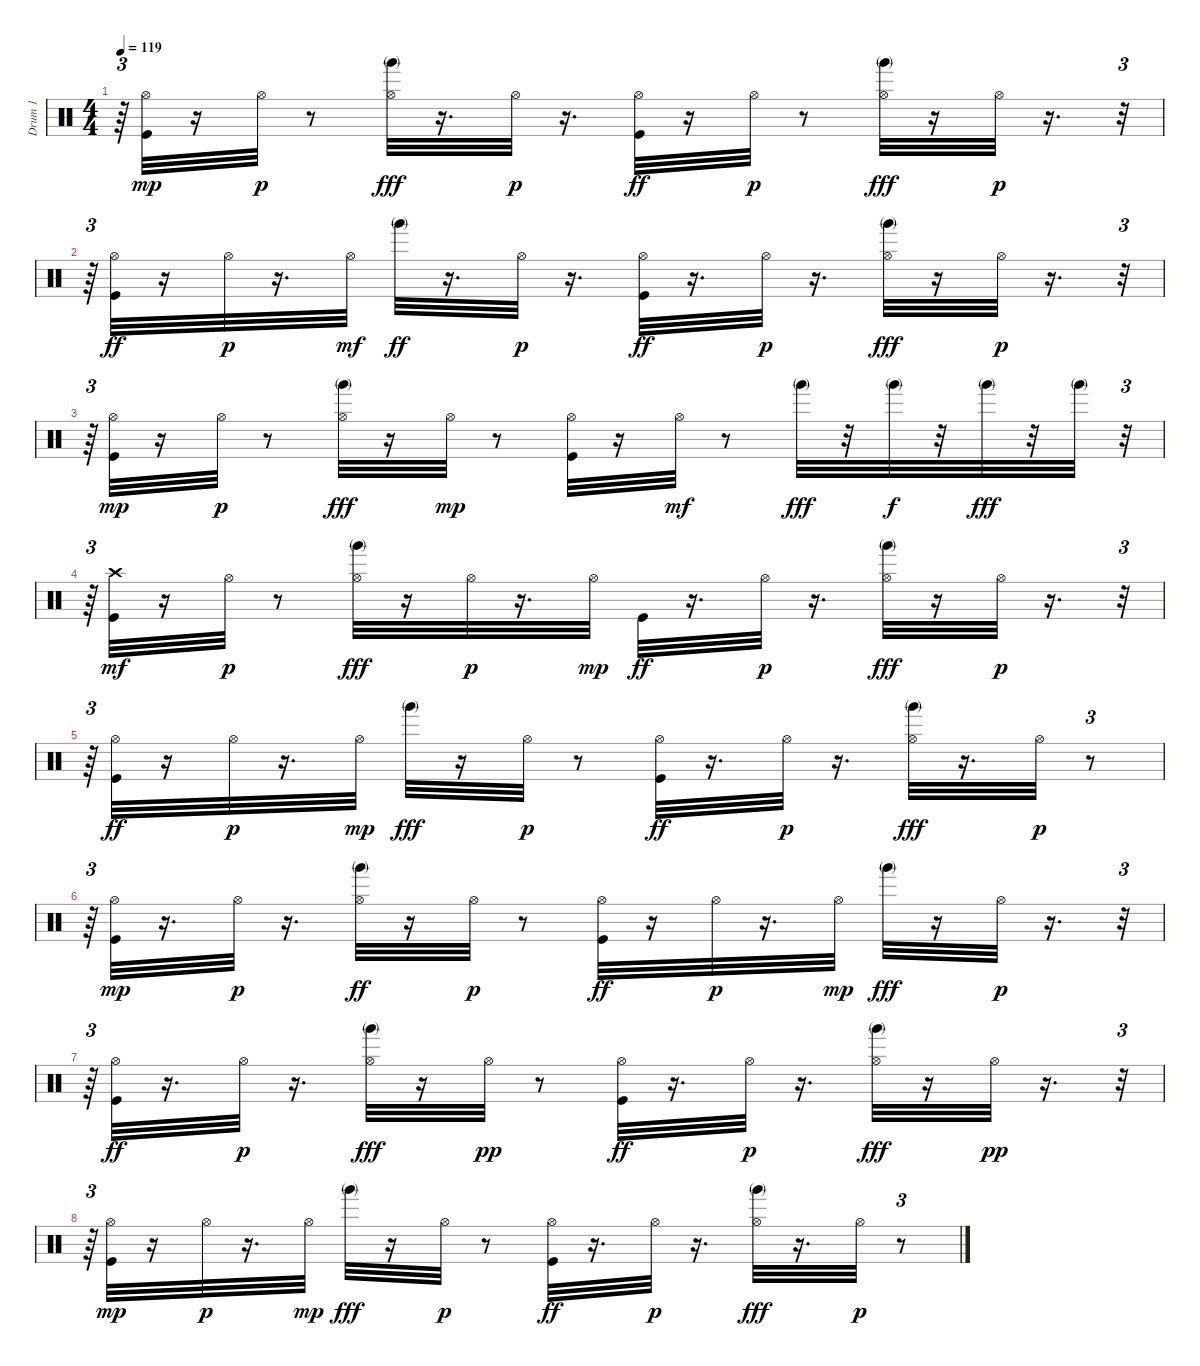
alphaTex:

\track ("Drum 1                          " "Drum 1    ") {instrument percussion}
\staff {score}
\articulation defaults
\ts (4 4)
\tempo 119
\clef neutral
\ks c
r.64{tu (3 2) dy p} ("Kick (hit)" "Hi-Hat (open)").32{dy mp} r.16 "Hi-Hat (open)".32{dy p} r.8 ("Hi-Hat (open)" "Hand (mute) 2").32{dy fff} r.16{d} "Hi-Hat (open)".32{dy p} r.16{d} ("Hi-Hat (open)" "Kick (hit)").32{dy ff} r.16 "Hi-Hat (open)".32{dy p} r.8 ("Hi-Hat (open)" "Hand (mute) 2").32{dy fff} r.16 "Hi-Hat (open)".32{dy p} r.16{d} r.32{tu (3 2)} |
r.64{tu (3 2)} ("Hi-Hat (open)" "Kick (hit)").32{dy ff} r.16 "Hi-Hat (open)".32{dy p} r.16{d} "Hi-Hat (open)".32{dy mf} "Hand (mute) 2".32{dy ff} r.16{d} "Hi-Hat (open)".32{dy p} r.16{d} ("Hi-Hat (open)" "Kick (hit)").32{dy ff} r.16{d} "Hi-Hat (open)".32{dy p} r.16{d} ("Hi-Hat (open)" "Hand (mute) 2").32{dy fff} r.16 "Hi-Hat (open)".32{dy p} r.16{d} r.32{tu (3 2)} |
r.64{tu (3 2)} ("Kick (hit)" "Hi-Hat (open)").32{dy mp} r.16 "Hi-Hat (open)".32{dy p} r.8 ("Hi-Hat (open)" "Hand (mute) 2").32{dy fff} r.16 "Hi-Hat (open)".32{dy mp} r.8 ("Kick (hit)" "Hi-Hat (open)").32 r.16 "Hi-Hat (open)".32{dy mf} r.8 "Hand (mute) 2".32{dy fff} r.32 "Hand (mute) 2".32{dy f} r.32 "Hand (mute) 2".32{dy fff} r.32 "Hand (mute) 2".32 r.32{tu (3 2)} |
r.64{tu (3 2)} ("Kick (hit)" "Crash high (hit)").32{dy mf} r.16 "Hi-Hat (open)".32{dy p} r.8 ("Hi-Hat (open)" "Hand (mute) 2").32{dy fff} r.16 "Hi-Hat (open)".32{dy p} r.16{d} "Hi-Hat (open)".32{dy mp} "Kick (hit)".32{dy ff} r.16{d} "Hi-Hat (open)".32{dy p} r.16{d} ("Hi-Hat (open)" "Hand (mute) 2").32{dy fff} r.16 "Hi-Hat (open)".32{dy p} r.16{d} r.32{tu (3 2)} |
r.64{tu (3 2)} ("Hi-Hat (open)" "Kick (hit)").32{dy ff} r.16 "Hi-Hat (open)".32{dy p} r.16{d} "Hi-Hat (open)".32{dy mp} "Hand (mute) 2".32{dy fff} r.16 "Hi-Hat (open)".32{dy p} r.8 ("Hi-Hat (open)" "Kick (hit)").32{dy ff} r.16{d} "Hi-Hat (open)".32{dy p} r.16{d} ("Hi-Hat (open)" "Hand (mute) 2").32{dy fff} r.16{d} "Hi-Hat (open)".32{dy p} r.8{tu (3 2)} |
r.64{tu (3 2)} ("Kick (hit)" "Hi-Hat (open)").32{dy mp} r.16{d} "Hi-Hat (open)".32{dy p} r.16{d} ("Hi-Hat (open)" "Hand (mute) 2").32{dy ff} r.16 "Hi-Hat (open)".32{dy p} r.8 ("Hi-Hat (open)" "Kick (hit)").32{dy ff} r.16 "Hi-Hat (open)".32{dy p} r.16{d} "Hi-Hat (open)".32{dy mp} "Hand (mute) 2".32{dy fff} r.16 "Hi-Hat (open)".32{dy p} r.16{d} r.32{tu (3 2)} |
r.64{tu (3 2)} ("Hi-Hat (open)" "Kick (hit)").32{dy ff} r.16{d} "Hi-Hat (open)".32{dy p} r.16{d} ("Hi-Hat (open)" "Hand (mute) 2").32{dy fff} r.16 "Hi-Hat (open)".32{dy pp} r.8 ("Hi-Hat (open)" "Kick (hit)").32{dy ff} r.16{d} "Hi-Hat (open)".32{dy p} r.16{d} ("Hi-Hat (open)" "Hand (mute) 2").32{dy fff} r.16 "Hi-Hat (open)".32{dy pp} r.16{d} r.32{tu (3 2)} |
r.64{tu (3 2)} ("Kick (hit)" "Hi-Hat (open)").32{dy mp} r.16 "Hi-Hat (open)".32{dy p} r.16{d} "Hi-Hat (open)".32{dy mp} "Hand (mute) 2".32{dy fff} r.16 "Hi-Hat (open)".32{dy p} r.8 ("Hi-Hat (open)" "Kick (hit)").32{dy ff} r.16{d} "Hi-Hat (open)".32{dy p} r.16{d} ("Hi-Hat (open)" "Hand (mute) 2").32{dy fff} r.16{d} "Hi-Hat (open)".32{dy p} r.8{tu (3 2)}
